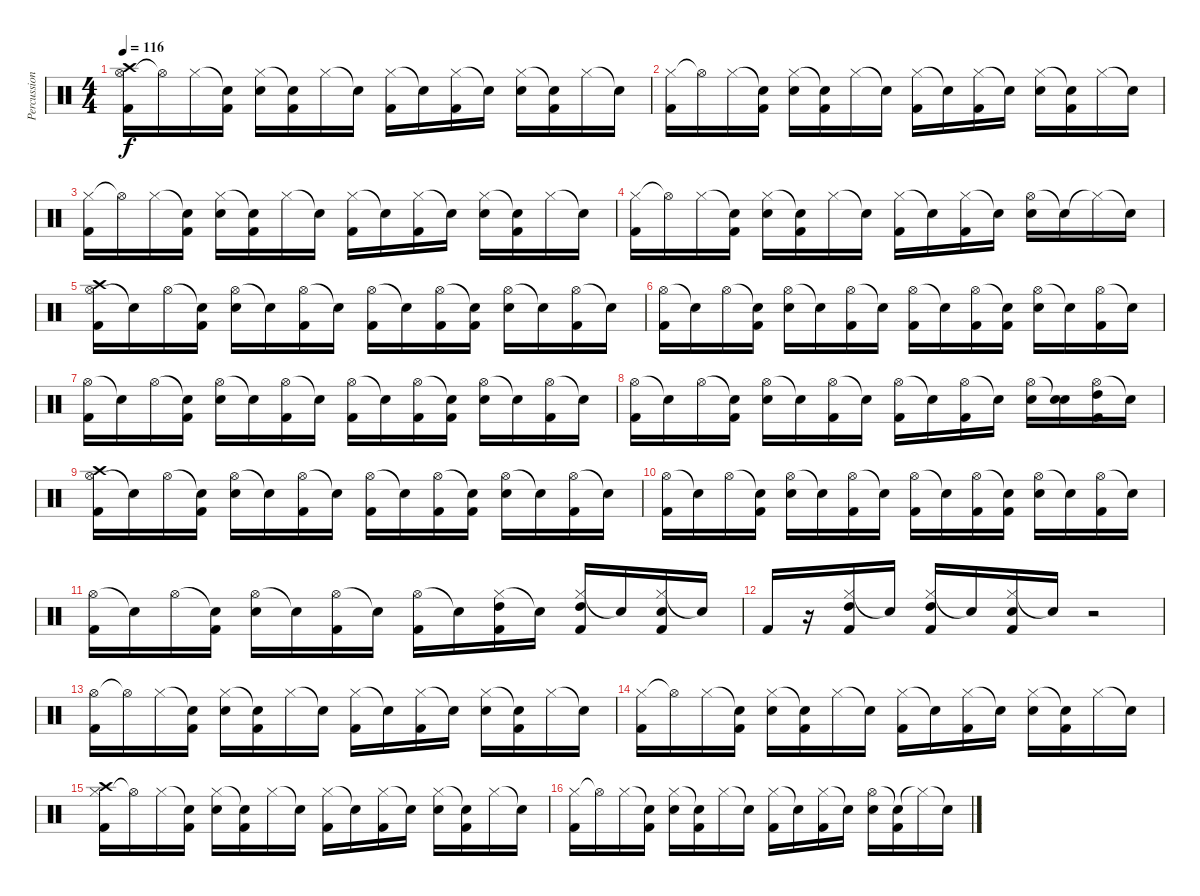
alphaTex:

\track ("Percussion" "Percussion") {instrument percussion}
\staff {score}
\articulation defaults
\ts (4 4)
\tempo 116
\clef neutral
\ks c
("Hi-Hat (open)" "Kick (hit) 2" "Crash high (hit)").16{dy f} "Hi-Hat (open)"{t}.16 "Hi-Hat (closed)".16 ("Snare (hit)"{t} "Kick (hit) 2").16 ("Hi-Hat (closed)" "Electric Snare (hit)").16 ("Snare (hit)"{t} "Kick (hit) 2").16 "Hi-Hat (closed)".16 "Snare (hit)"{t}.16 ("Hi-Hat (closed)" "Kick (hit) 2").16 "Snare (hit)"{t}.16 ("Hi-Hat (closed)" "Kick (hit) 2").16 "Snare (hit)"{t}.16 ("Hi-Hat (closed)" "Electric Snare (hit)").16 ("Snare (hit)"{t} "Kick (hit) 2").16 "Hi-Hat (closed)".16 "Snare (hit)"{t}.16 |
("Hi-Hat (closed)" "Kick (hit) 2").16 "Hi-Hat (open)"{t}.16 "Hi-Hat (closed)".16 ("Snare (hit)"{t} "Kick (hit) 2").16 ("Hi-Hat (closed)" "Electric Snare (hit)").16 ("Snare (hit)"{t} "Kick (hit) 2").16 "Hi-Hat (closed)".16 "Snare (hit)"{t}.16 ("Hi-Hat (closed)" "Kick (hit) 2").16 "Snare (hit)"{t}.16 ("Hi-Hat (closed)" "Kick (hit) 2").16 "Snare (hit)"{t}.16 ("Hi-Hat (closed)" "Electric Snare (hit)").16 ("Snare (hit)"{t} "Kick (hit) 2").16 "Hi-Hat (closed)".16 "Snare (hit)"{t}.16 |
("Hi-Hat (closed)" "Kick (hit) 2").16 "Hi-Hat (open)"{t}.16 "Hi-Hat (closed)".16 ("Snare (hit)"{t} "Kick (hit) 2").16 ("Hi-Hat (closed)" "Electric Snare (hit)").16 ("Snare (hit)"{t} "Kick (hit) 2").16 "Hi-Hat (closed)".16 "Snare (hit)"{t}.16 ("Hi-Hat (closed)" "Kick (hit) 2").16 "Snare (hit)"{t}.16 ("Hi-Hat (closed)" "Kick (hit) 2").16 "Snare (hit)"{t}.16 ("Hi-Hat (closed)" "Electric Snare (hit)").16 ("Snare (hit)"{t} "Kick (hit) 2").16 "Hi-Hat (closed)".16 "Snare (hit)"{t}.16 |
("Hi-Hat (closed)" "Kick (hit) 2").16 "Hi-Hat (open)"{t}.16 "Hi-Hat (closed)".16 ("Snare (hit)"{t} "Kick (hit) 2").16 ("Hi-Hat (closed)" "Electric Snare (hit)").16 ("Snare (hit)"{t} "Kick (hit) 2").16 "Hi-Hat (closed)".16 "Snare (hit)"{t}.16 ("Hi-Hat (closed)" "Kick (hit) 2").16 "Snare (hit)"{t}.16 ("Hi-Hat (closed)" "Kick (hit) 2").16 "Snare (hit)"{t}.16 ("Hi-Hat (open)" "Electric Snare (hit)").16 "Snare (hit)"{t}.16 "Hi-Hat (closed)"{t}.16 "Snare (hit)"{t}.16 |
("Hi-Hat (open)" "Kick (hit) 2" "Crash high (hit)").16{volume 14} "Snare (hit)"{t}.16 "Hi-Hat (open)".16 ("Snare (hit)"{t} "Kick (hit) 2").16 ("Hi-Hat (open)" "Electric Snare (hit)").16 "Snare (hit)"{t}.16 ("Hi-Hat (open)" "Kick (hit) 2").16 "Snare (hit)"{t}.16 ("Hi-Hat (open)" "Kick (hit) 2").16 "Snare (hit)"{t}.16 ("Hi-Hat (open)" "Kick (hit) 2").16 ("Snare (hit)"{t} "Kick (hit) 2").16 ("Hi-Hat (open)" "Electric Snare (hit)").16 "Snare (hit)"{t}.16 ("Hi-Hat (open)" "Kick (hit) 2").16 "Snare (hit)"{t}.16 |
("Hi-Hat (open)" "Kick (hit) 2").16 "Snare (hit)"{t}.16 "Hi-Hat (open)".16 ("Snare (hit)"{t} "Kick (hit) 2").16 ("Hi-Hat (open)" "Electric Snare (hit)").16 "Snare (hit)"{t}.16 ("Hi-Hat (open)" "Kick (hit) 2").16 "Snare (hit)"{t}.16 ("Hi-Hat (open)" "Kick (hit) 2").16 "Snare (hit)"{t}.16 ("Hi-Hat (open)" "Kick (hit) 2").16 ("Snare (hit)"{t} "Kick (hit) 2").16 ("Hi-Hat (open)" "Electric Snare (hit)").16 "Snare (hit)"{t}.16 ("Hi-Hat (open)" "Kick (hit) 2").16 "Snare (hit)"{t}.16 |
("Hi-Hat (open)" "Kick (hit) 2").16 "Snare (hit)"{t}.16 "Hi-Hat (open)".16 ("Snare (hit)"{t} "Kick (hit) 2").16 ("Hi-Hat (open)" "Electric Snare (hit)").16 "Snare (hit)"{t}.16 ("Hi-Hat (open)" "Kick (hit) 2").16 "Snare (hit)"{t}.16 ("Hi-Hat (open)" "Kick (hit) 2").16 "Snare (hit)"{t}.16 ("Hi-Hat (open)" "Kick (hit) 2").16 ("Snare (hit)"{t} "Kick (hit) 2").16 ("Hi-Hat (open)" "Electric Snare (hit)").16 "Snare (hit)"{t}.16 ("Hi-Hat (open)" "Kick (hit) 2").16 "Snare (hit)"{t}.16 |
("Hi-Hat (open)" "Kick (hit) 2").16 "Snare (hit)"{t}.16 "Hi-Hat (open)".16 ("Snare (hit)"{t} "Kick (hit) 2").16 ("Hi-Hat (open)" "Electric Snare (hit)").16 "Snare (hit)"{t}.16 ("Hi-Hat (open)" "Kick (hit) 2").16 "Snare (hit)"{t}.16 ("Hi-Hat (open)" "Kick (hit) 2").16 "Snare (hit)"{t}.16 ("Hi-Hat (open)" "Kick (hit) 2").16 "Snare (hit)"{t}.16 ("Hi-Hat (open)" "Electric Snare (hit)").16 ("Snare (hit)"{t} "Electric Snare (hit)").16 ("Hi-Hat (open)" "Kick (hit) 2" "High Tom (hit)").16 "Snare (hit)"{t}.16 |
("Hi-Hat (open)" "Kick (hit) 2" "Crash high (hit)").16{volume 14} "Snare (hit)"{t}.16 "Hi-Hat (open)".16 ("Snare (hit)"{t} "Kick (hit) 2").16 ("Hi-Hat (open)" "Electric Snare (hit)").16 "Snare (hit)"{t}.16 ("Hi-Hat (open)" "Kick (hit) 2").16 "Snare (hit)"{t}.16 ("Hi-Hat (open)" "Kick (hit) 2").16 "Snare (hit)"{t}.16 ("Hi-Hat (open)" "Kick (hit) 2").16 ("Snare (hit)"{t} "Kick (hit) 2").16 ("Hi-Hat (open)" "Electric Snare (hit)").16 "Snare (hit)"{t}.16 ("Hi-Hat (open)" "Kick (hit) 2").16 "Snare (hit)"{t}.16 |
("Hi-Hat (open)" "Kick (hit) 2").16 "Snare (hit)"{t}.16 "Hi-Hat (open)".16 ("Snare (hit)"{t} "Kick (hit) 2").16 ("Hi-Hat (open)" "Electric Snare (hit)").16 "Snare (hit)"{t}.16 ("Hi-Hat (open)" "Kick (hit) 2").16 "Snare (hit)"{t}.16 ("Hi-Hat (open)" "Kick (hit) 2").16 "Snare (hit)"{t}.16 ("Hi-Hat (open)" "Kick (hit) 2").16 ("Snare (hit)"{t} "Kick (hit) 2").16 ("Hi-Hat (open)" "Electric Snare (hit)").16 "Snare (hit)"{t}.16 ("Hi-Hat (open)" "Kick (hit) 2").16 "Snare (hit)"{t}.16 |
("Hi-Hat (open)" "Kick (hit) 2").16 "Snare (hit)"{t}.16 "Hi-Hat (open)".16 ("Snare (hit)"{t} "Kick (hit) 2").16 ("Hi-Hat (open)" "Electric Snare (hit)").16 "Snare (hit)"{t}.16 ("Hi-Hat (open)" "Kick (hit) 2").16 "Snare (hit)"{t}.16 ("Hi-Hat (open)" "Kick (hit) 2").16 "Snare (hit)"{t}.16 ("Hi-Hat (closed)" "Kick (hit) 2" "High Tom (hit)").16 "Snare (hit)"{t}.16 ("Hi-Hat (closed)" "Kick (hit) 2" "High Tom (hit)").16 "Snare (hit)"{t}.16 ("Hi-Hat (closed)" "Kick (hit) 2" "Electric Snare (hit)").16 "Snare (hit)"{t}.16 |
"Kick (hit) 2".16 r.16 ("Hi-Hat (closed)" "Kick (hit) 2" "High Tom (hit)").16 "Snare (hit)"{t}.16 ("Hi-Hat (closed)" "Kick (hit) 2" "High Tom (hit)").16 "Snare (hit)"{t}.16 ("Hi-Hat (closed)" "Kick (hit) 2" "Electric Snare (hit)").16 "Snare (hit)"{t}.16 r.2 |
("Hi-Hat (open)" "Kick (hit) 2").16 "Hi-Hat (open)"{t}.16 "Hi-Hat (closed)".16 ("Snare (hit)"{t} "Kick (hit) 2").16 ("Hi-Hat (closed)" "Electric Snare (hit)").16 ("Snare (hit)"{t} "Kick (hit) 2").16 "Hi-Hat (closed)".16 "Snare (hit)"{t}.16 ("Hi-Hat (closed)" "Kick (hit) 2").16 "Snare (hit)"{t}.16 ("Hi-Hat (closed)" "Kick (hit) 2").16 "Snare (hit)"{t}.16 ("Hi-Hat (closed)" "Electric Snare (hit)").16 ("Snare (hit)"{t} "Kick (hit) 2").16 "Hi-Hat (closed)".16 "Snare (hit)"{t}.16 |
("Hi-Hat (closed)" "Kick (hit) 2").16 "Hi-Hat (open)"{t}.16 "Hi-Hat (closed)".16 ("Snare (hit)"{t} "Kick (hit) 2").16 ("Hi-Hat (closed)" "Electric Snare (hit)").16 ("Snare (hit)"{t} "Kick (hit) 2").16 "Hi-Hat (closed)".16 "Snare (hit)"{t}.16 ("Hi-Hat (closed)" "Kick (hit) 2").16 "Snare (hit)"{t}.16 ("Hi-Hat (closed)" "Kick (hit) 2").16 "Snare (hit)"{t}.16 ("Hi-Hat (closed)" "Electric Snare (hit)").16 ("Snare (hit)"{t} "Kick (hit) 2").16 "Hi-Hat (closed)".16 "Snare (hit)"{t}.16 |
("Hi-Hat (closed)" "Kick (hit) 2" "Crash high (hit)").16 "Hi-Hat (open)"{t}.16 "Hi-Hat (closed)".16 ("Snare (hit)"{t} "Kick (hit) 2").16 ("Hi-Hat (closed)" "Electric Snare (hit)").16 ("Snare (hit)"{t} "Kick (hit) 2").16 "Hi-Hat (closed)".16 "Snare (hit)"{t}.16 ("Hi-Hat (closed)" "Kick (hit) 2").16 "Snare (hit)"{t}.16 ("Hi-Hat (closed)" "Kick (hit) 2").16 "Snare (hit)"{t}.16 ("Hi-Hat (closed)" "Electric Snare (hit)").16 ("Snare (hit)"{t} "Kick (hit) 2").16 "Hi-Hat (closed)".16 "Snare (hit)"{t}.16 |
("Hi-Hat (closed)" "Kick (hit) 2").16 "Hi-Hat (open)"{t}.16 "Hi-Hat (closed)".16 ("Snare (hit)"{t} "Kick (hit) 2").16 ("Hi-Hat (closed)" "Electric Snare (hit)").16 ("Snare (hit)"{t} "Kick (hit) 2").16 "Hi-Hat (closed)".16 "Snare (hit)"{t}.16 ("Hi-Hat (closed)" "Kick (hit) 2").16 "Snare (hit)"{t}.16 ("Hi-Hat (closed)" "Kick (hit) 2").16 "Snare (hit)"{t}.16 ("Hi-Hat (open)" "Electric Snare (hit)").16 ("Snare (hit)"{t} "Kick (hit) 2").16 "Hi-Hat (closed)"{t}.16 "Snare (hit)"{t}.16
